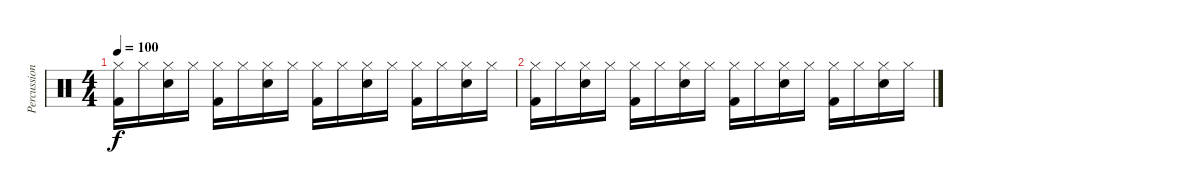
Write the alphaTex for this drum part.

\track ("Percussion" "Percussion") {instrument percussion}
\staff {score}
\articulation defaults
\ts (4 4)
\tempo 100
\clef neutral
\ks c
("Hi-Hat (closed)" "Kick (hit) 2").16{dy f} "Hi-Hat (closed)".16 ("Hi-Hat (closed)" "Snare (hit) 2").16 "Hi-Hat (closed)".16 ("Hi-Hat (closed)" "Kick (hit) 2").16 "Hi-Hat (closed)".16 ("Hi-Hat (closed)" "Snare (hit) 2").16 "Hi-Hat (closed)".16 ("Hi-Hat (closed)" "Kick (hit) 2").16 "Hi-Hat (closed)".16 ("Hi-Hat (closed)" "Snare (hit) 2").16 "Hi-Hat (closed)".16 ("Hi-Hat (closed)" "Kick (hit) 2").16 "Hi-Hat (closed)".16 ("Hi-Hat (closed)" "Snare (hit) 2").16 "Hi-Hat (closed)".16 |
("Hi-Hat (closed)" "Kick (hit) 2").16 "Hi-Hat (closed)".16 ("Hi-Hat (closed)" "Snare (hit) 2").16 "Hi-Hat (closed)".16 ("Hi-Hat (closed)" "Kick (hit) 2").16 "Hi-Hat (closed)".16 ("Hi-Hat (closed)" "Snare (hit) 2").16 "Hi-Hat (closed)".16 ("Hi-Hat (closed)" "Kick (hit) 2").16 "Hi-Hat (closed)".16 ("Hi-Hat (closed)" "Snare (hit) 2").16 "Hi-Hat (closed)".16 ("Hi-Hat (closed)" "Kick (hit) 2").16 "Hi-Hat (closed)".16 ("Hi-Hat (closed)" "Snare (hit) 2").16 "Hi-Hat (closed)".16
